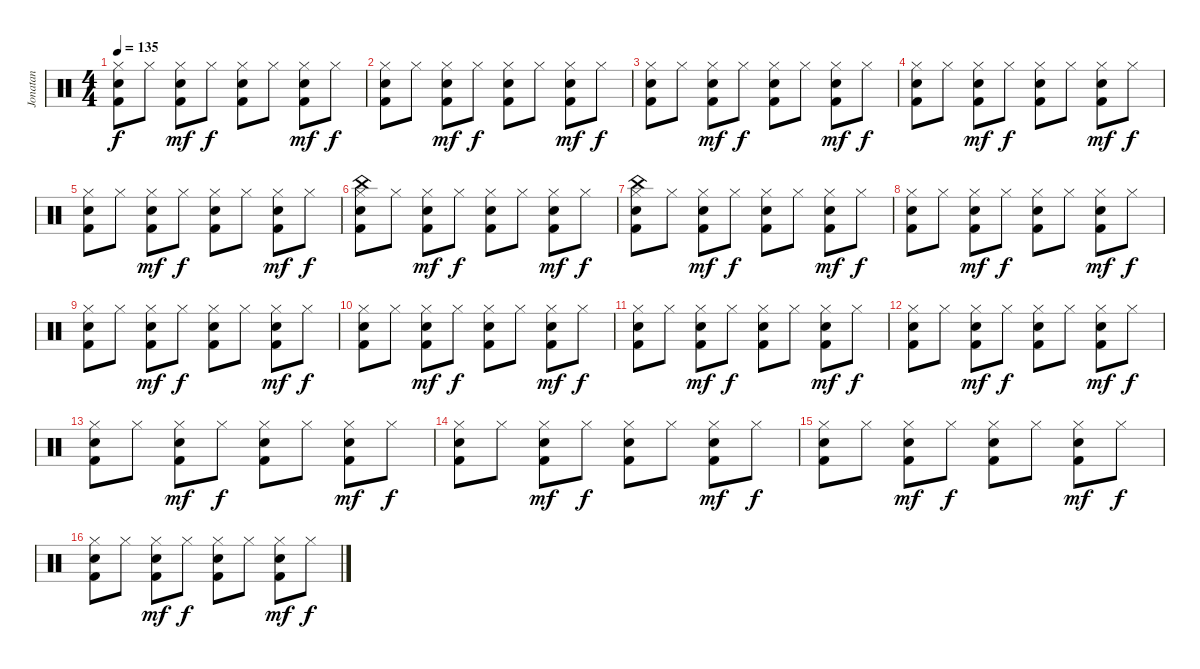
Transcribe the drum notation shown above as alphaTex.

\track ("Jonatan" "Jonatan") {instrument percussion}
\staff {score}
\articulation defaults
\ts (4 4)
\tempo 135
\clef neutral
\ks c
("Hi-Hat (closed)" "Electric Snare (hit)" "Kick (hit) 2").8{dy f} "Hi-Hat (closed)".8 ("Hi-Hat (closed)" "Electric Snare (hit)" "Kick (hit) 2").8{dy mf} "Hi-Hat (closed)".8{dy f} ("Hi-Hat (closed)" "Electric Snare (hit)" "Kick (hit) 2").8 "Hi-Hat (closed)".8 ("Hi-Hat (closed)" "Electric Snare (hit)" "Kick (hit) 2").8{dy mf} "Hi-Hat (closed)".8{dy f} |
("Hi-Hat (closed)" "Electric Snare (hit)" "Kick (hit) 2").8 "Hi-Hat (closed)".8 ("Hi-Hat (closed)" "Electric Snare (hit)" "Kick (hit) 2").8{dy mf} "Hi-Hat (closed)".8{dy f} ("Hi-Hat (closed)" "Electric Snare (hit)" "Kick (hit) 2").8 "Hi-Hat (closed)".8 ("Hi-Hat (closed)" "Electric Snare (hit)" "Kick (hit) 2").8{dy mf} "Hi-Hat (closed)".8{dy f} |
("Hi-Hat (closed)" "Electric Snare (hit)" "Kick (hit) 2").8 "Hi-Hat (closed)".8 ("Hi-Hat (closed)" "Electric Snare (hit)" "Kick (hit) 2").8{dy mf} "Hi-Hat (closed)".8{dy f} ("Hi-Hat (closed)" "Electric Snare (hit)" "Kick (hit) 2").8 "Hi-Hat (closed)".8 ("Hi-Hat (closed)" "Electric Snare (hit)" "Kick (hit) 2").8{dy mf} "Hi-Hat (closed)".8{dy f} |
("Hi-Hat (closed)" "Electric Snare (hit)" "Kick (hit) 2").8 "Hi-Hat (closed)".8 ("Hi-Hat (closed)" "Electric Snare (hit)" "Kick (hit) 2").8{dy mf} "Hi-Hat (closed)".8{dy f} ("Hi-Hat (closed)" "Electric Snare (hit)" "Kick (hit) 2").8 "Hi-Hat (closed)".8 ("Hi-Hat (closed)" "Electric Snare (hit)" "Kick (hit) 2").8{dy mf} "Hi-Hat (closed)".8{dy f} |
("Hi-Hat (closed)" "Electric Snare (hit)" "Kick (hit) 2").8 "Hi-Hat (closed)".8 ("Hi-Hat (closed)" "Electric Snare (hit)" "Kick (hit) 2").8{dy mf} "Hi-Hat (closed)".8{dy f} ("Hi-Hat (closed)" "Electric Snare (hit)" "Kick (hit) 2").8 "Hi-Hat (closed)".8 ("Hi-Hat (closed)" "Electric Snare (hit)" "Kick (hit) 2").8{dy mf} "Hi-Hat (closed)".8{dy f} |
("China (hit)" "Hi-Hat (closed)" "Electric Snare (hit)" "Kick (hit) 2").8 "Hi-Hat (closed)".8 ("Hi-Hat (closed)" "Electric Snare (hit)" "Kick (hit) 2").8{dy mf} "Hi-Hat (closed)".8{dy f} ("Hi-Hat (closed)" "Electric Snare (hit)" "Kick (hit) 2").8 "Hi-Hat (closed)".8 ("Hi-Hat (closed)" "Electric Snare (hit)" "Kick (hit) 2").8{dy mf} "Hi-Hat (closed)".8{dy f} |
("China (hit)" "Hi-Hat (closed)" "Electric Snare (hit)" "Kick (hit) 2").8 "Hi-Hat (closed)".8 ("Hi-Hat (closed)" "Electric Snare (hit)" "Kick (hit) 2").8{dy mf} "Hi-Hat (closed)".8{dy f} ("Hi-Hat (closed)" "Electric Snare (hit)" "Kick (hit) 2").8 "Hi-Hat (closed)".8 ("Hi-Hat (closed)" "Electric Snare (hit)" "Kick (hit) 2").8{dy mf} "Hi-Hat (closed)".8{dy f} |
("Hi-Hat (closed)" "Electric Snare (hit)" "Kick (hit) 2").8 "Hi-Hat (closed)".8 ("Hi-Hat (closed)" "Electric Snare (hit)" "Kick (hit) 2").8{dy mf} "Hi-Hat (closed)".8{dy f} ("Hi-Hat (closed)" "Electric Snare (hit)" "Kick (hit) 2").8 "Hi-Hat (closed)".8 ("Hi-Hat (closed)" "Electric Snare (hit)" "Kick (hit) 2").8{dy mf} "Hi-Hat (closed)".8{dy f} |
("Hi-Hat (closed)" "Electric Snare (hit)" "Kick (hit) 2").8 "Hi-Hat (closed)".8 ("Hi-Hat (closed)" "Electric Snare (hit)" "Kick (hit) 2").8{dy mf} "Hi-Hat (closed)".8{dy f} ("Hi-Hat (closed)" "Electric Snare (hit)" "Kick (hit) 2").8 "Hi-Hat (closed)".8 ("Hi-Hat (closed)" "Electric Snare (hit)" "Kick (hit) 2").8{dy mf} "Hi-Hat (closed)".8{dy f} |
("Hi-Hat (closed)" "Electric Snare (hit)" "Kick (hit) 2").8 "Hi-Hat (closed)".8 ("Hi-Hat (closed)" "Electric Snare (hit)" "Kick (hit) 2").8{dy mf} "Hi-Hat (closed)".8{dy f} ("Hi-Hat (closed)" "Electric Snare (hit)" "Kick (hit) 2").8 "Hi-Hat (closed)".8 ("Hi-Hat (closed)" "Electric Snare (hit)" "Kick (hit) 2").8{dy mf} "Hi-Hat (closed)".8{dy f} |
("Hi-Hat (closed)" "Electric Snare (hit)" "Kick (hit) 2").8 "Hi-Hat (closed)".8 ("Hi-Hat (closed)" "Electric Snare (hit)" "Kick (hit) 2").8{dy mf} "Hi-Hat (closed)".8{dy f} ("Hi-Hat (closed)" "Electric Snare (hit)" "Kick (hit) 2").8 "Hi-Hat (closed)".8 ("Hi-Hat (closed)" "Electric Snare (hit)" "Kick (hit) 2").8{dy mf} "Hi-Hat (closed)".8{dy f} |
("Hi-Hat (closed)" "Electric Snare (hit)" "Kick (hit) 2").8 "Hi-Hat (closed)".8 ("Hi-Hat (closed)" "Electric Snare (hit)" "Kick (hit) 2").8{dy mf} "Hi-Hat (closed)".8{dy f} ("Hi-Hat (closed)" "Electric Snare (hit)" "Kick (hit) 2").8 "Hi-Hat (closed)".8 ("Hi-Hat (closed)" "Electric Snare (hit)" "Kick (hit) 2").8{dy mf} "Hi-Hat (closed)".8{dy f} |
("Hi-Hat (closed)" "Electric Snare (hit)" "Kick (hit) 2").8 "Hi-Hat (closed)".8 ("Hi-Hat (closed)" "Electric Snare (hit)" "Kick (hit) 2").8{dy mf} "Hi-Hat (closed)".8{dy f} ("Hi-Hat (closed)" "Electric Snare (hit)" "Kick (hit) 2").8 "Hi-Hat (closed)".8 ("Hi-Hat (closed)" "Electric Snare (hit)" "Kick (hit) 2").8{dy mf} "Hi-Hat (closed)".8{dy f} |
("Hi-Hat (closed)" "Electric Snare (hit)" "Kick (hit) 2").8 "Hi-Hat (closed)".8 ("Hi-Hat (closed)" "Electric Snare (hit)" "Kick (hit) 2").8{dy mf} "Hi-Hat (closed)".8{dy f} ("Hi-Hat (closed)" "Electric Snare (hit)" "Kick (hit) 2").8 "Hi-Hat (closed)".8 ("Hi-Hat (closed)" "Electric Snare (hit)" "Kick (hit) 2").8{dy mf} "Hi-Hat (closed)".8{dy f} |
("Hi-Hat (closed)" "Electric Snare (hit)" "Kick (hit) 2").8 "Hi-Hat (closed)".8 ("Hi-Hat (closed)" "Electric Snare (hit)" "Kick (hit) 2").8{dy mf} "Hi-Hat (closed)".8{dy f} ("Hi-Hat (closed)" "Electric Snare (hit)" "Kick (hit) 2").8 "Hi-Hat (closed)".8 ("Hi-Hat (closed)" "Electric Snare (hit)" "Kick (hit) 2").8{dy mf} "Hi-Hat (closed)".8{dy f} |
("Hi-Hat (closed)" "Electric Snare (hit)" "Kick (hit) 2").8 "Hi-Hat (closed)".8 ("Hi-Hat (closed)" "Electric Snare (hit)" "Kick (hit) 2").8{dy mf} "Hi-Hat (closed)".8{dy f} ("Hi-Hat (closed)" "Electric Snare (hit)" "Kick (hit) 2").8 "Hi-Hat (closed)".8 ("Hi-Hat (closed)" "Electric Snare (hit)" "Kick (hit) 2").8{dy mf} "Hi-Hat (closed)".8{dy f}
